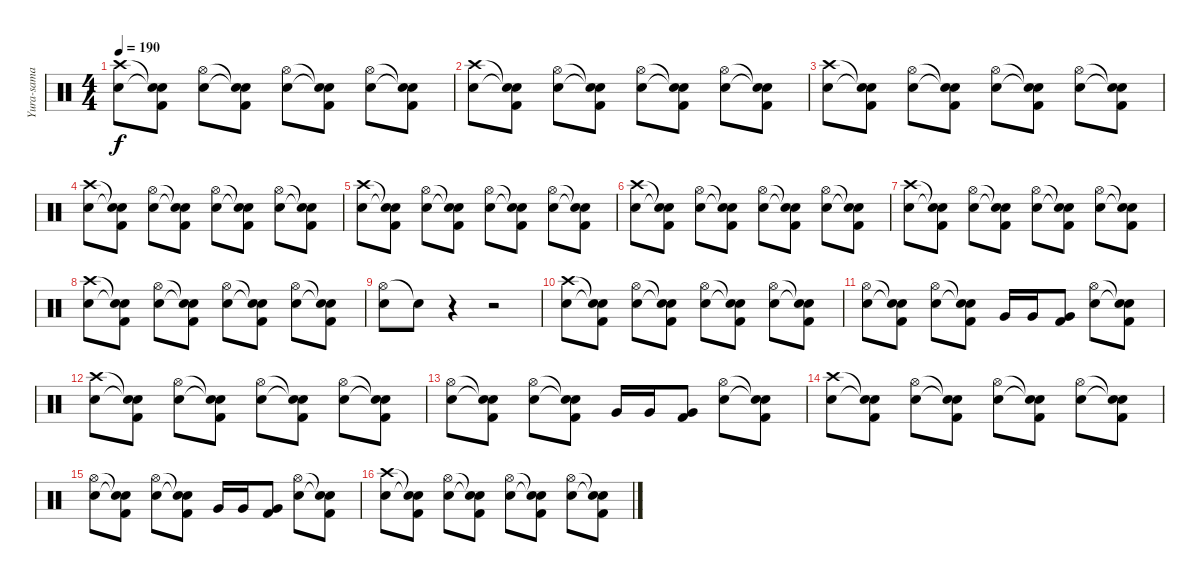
\track ("Yura-sama" "Yura-sama") {instrument percussion}
\staff {score}
\articulation defaults
\ts (4 4)
\tempo 190
\clef neutral
\ks c
("Crash high (hit)" "Electric Snare (hit)").8{dy f} ("Snare (hit)"{t} "Snare (hit)"{t} "Kick (hit) 2").8 ("Hi-Hat (open)" "Electric Snare (hit)").8 ("Snare (hit)"{t} "Snare (hit)"{t} "Kick (hit) 2").8 ("Hi-Hat (open)" "Electric Snare (hit)").8 ("Snare (hit)"{t} "Snare (hit)"{t} "Kick (hit) 2").8 ("Hi-Hat (open)" "Electric Snare (hit)").8 ("Snare (hit)"{t} "Snare (hit)"{t} "Kick (hit) 2").8 |
("Crash high (hit)" "Electric Snare (hit)").8 ("Snare (hit)"{t} "Snare (hit)"{t} "Kick (hit) 2").8 ("Hi-Hat (open)" "Electric Snare (hit)").8 ("Snare (hit)"{t} "Snare (hit)"{t} "Kick (hit) 2").8 ("Hi-Hat (open)" "Electric Snare (hit)").8 ("Snare (hit)"{t} "Snare (hit)"{t} "Kick (hit) 2").8 ("Hi-Hat (open)" "Electric Snare (hit)").8 ("Snare (hit)"{t} "Snare (hit)"{t} "Kick (hit) 2").8 |
("Crash high (hit)" "Electric Snare (hit)").8 ("Snare (hit)"{t} "Snare (hit)"{t} "Kick (hit) 2").8 ("Hi-Hat (open)" "Electric Snare (hit)").8 ("Snare (hit)"{t} "Snare (hit)"{t} "Kick (hit) 2").8 ("Hi-Hat (open)" "Electric Snare (hit)").8 ("Snare (hit)"{t} "Snare (hit)"{t} "Kick (hit) 2").8 ("Hi-Hat (open)" "Electric Snare (hit)").8 ("Snare (hit)"{t} "Snare (hit)"{t} "Kick (hit) 2").8 |
("Crash high (hit)" "Electric Snare (hit)").8 ("Snare (hit)"{t} "Snare (hit)"{t} "Kick (hit) 2").8 ("Hi-Hat (open)" "Electric Snare (hit)").8 ("Snare (hit)"{t} "Snare (hit)"{t} "Kick (hit) 2").8 ("Hi-Hat (open)" "Electric Snare (hit)").8 ("Snare (hit)"{t} "Snare (hit)"{t} "Kick (hit) 2").8 ("Hi-Hat (open)" "Electric Snare (hit)").8 ("Snare (hit)"{t} "Snare (hit)"{t} "Kick (hit) 2").8 |
("Crash high (hit)" "Electric Snare (hit)").8 ("Snare (hit)"{t} "Snare (hit)"{t} "Kick (hit) 2").8 ("Hi-Hat (open)" "Electric Snare (hit)").8 ("Snare (hit)"{t} "Snare (hit)"{t} "Kick (hit) 2").8 ("Hi-Hat (open)" "Electric Snare (hit)").8 ("Snare (hit)"{t} "Snare (hit)"{t} "Kick (hit) 2").8 ("Hi-Hat (open)" "Electric Snare (hit)").8 ("Snare (hit)"{t} "Snare (hit)"{t} "Kick (hit) 2").8 |
("Crash high (hit)" "Electric Snare (hit)").8 ("Snare (hit)"{t} "Snare (hit)"{t} "Kick (hit) 2").8 ("Hi-Hat (open)" "Electric Snare (hit)").8 ("Snare (hit)"{t} "Snare (hit)"{t} "Kick (hit) 2").8 ("Hi-Hat (open)" "Electric Snare (hit)").8 ("Snare (hit)"{t} "Snare (hit)"{t} "Kick (hit) 2").8 ("Hi-Hat (open)" "Electric Snare (hit)").8 ("Snare (hit)"{t} "Snare (hit)"{t} "Kick (hit) 2").8 |
("Crash high (hit)" "Electric Snare (hit)").8 ("Snare (hit)"{t} "Snare (hit)"{t} "Kick (hit) 2").8 ("Hi-Hat (open)" "Electric Snare (hit)").8 ("Snare (hit)"{t} "Snare (hit)"{t} "Kick (hit) 2").8 ("Hi-Hat (open)" "Electric Snare (hit)").8 ("Snare (hit)"{t} "Snare (hit)"{t} "Kick (hit) 2").8 ("Hi-Hat (open)" "Electric Snare (hit)").8 ("Snare (hit)"{t} "Snare (hit)"{t} "Kick (hit) 2").8 |
("Crash high (hit)" "Electric Snare (hit)").8 ("Snare (hit)"{t} "Snare (hit)"{t} "Kick (hit) 2").8 ("Hi-Hat (open)" "Electric Snare (hit)").8 ("Snare (hit)"{t} "Snare (hit)"{t} "Kick (hit) 2").8 ("Hi-Hat (open)" "Electric Snare (hit)").8 ("Snare (hit)"{t} "Snare (hit)"{t} "Kick (hit) 2").8 ("Hi-Hat (open)" "Electric Snare (hit)").8 ("Snare (hit)"{t} "Snare (hit)"{t} "Kick (hit) 2").8 |
("Hi-Hat (open)" "Electric Snare (hit)").8 "Snare (hit)"{t}.8 r.4 r.2 |
("Crash high (hit)" "Electric Snare (hit)").8 ("Snare (hit)"{t} "Snare (hit)"{t} "Kick (hit) 2").8 ("Hi-Hat (open)" "Electric Snare (hit)").8 ("Snare (hit)"{t} "Snare (hit)"{t} "Kick (hit) 2").8 ("Hi-Hat (open)" "Electric Snare (hit)").8 ("Snare (hit)"{t} "Snare (hit)"{t} "Kick (hit) 2").8 ("Hi-Hat (open)" "Electric Snare (hit)").8 ("Snare (hit)"{t} "Snare (hit)"{t} "Kick (hit) 2").8 |
("Hi-Hat (open)" "Electric Snare (hit)").8 ("Snare (hit)"{t} "Snare (hit)"{t} "Kick (hit) 2").8 ("Hi-Hat (open)" "Electric Snare (hit)").8 ("Snare (hit)"{t} "Snare (hit)"{t} "Kick (hit) 2").8 "Very Low Tom (hit)".16 "Very Low Tom (hit)".16 ("Very Low Tom (hit)" "Kick (hit) 2").8 ("Hi-Hat (open)" "Electric Snare (hit)").8 ("Snare (hit)"{t} "Snare (hit)"{t} "Kick (hit) 2").8 |
("Crash high (hit)" "Electric Snare (hit)").8 ("Snare (hit)"{t} "Snare (hit)"{t} "Kick (hit) 2").8 ("Hi-Hat (open)" "Electric Snare (hit)").8 ("Snare (hit)"{t} "Snare (hit)"{t} "Kick (hit) 2").8 ("Hi-Hat (open)" "Electric Snare (hit)").8 ("Snare (hit)"{t} "Snare (hit)"{t} "Kick (hit) 2").8 ("Hi-Hat (open)" "Electric Snare (hit)").8 ("Snare (hit)"{t} "Snare (hit)"{t} "Kick (hit) 2").8 |
("Hi-Hat (open)" "Electric Snare (hit)").8 ("Snare (hit)"{t} "Snare (hit)"{t} "Kick (hit) 2").8 ("Hi-Hat (open)" "Electric Snare (hit)").8 ("Snare (hit)"{t} "Snare (hit)"{t} "Kick (hit) 2").8 "Very Low Tom (hit)".16 "Very Low Tom (hit)".16 ("Very Low Tom (hit)" "Kick (hit) 2").8 ("Hi-Hat (open)" "Electric Snare (hit)").8 ("Snare (hit)"{t} "Snare (hit)"{t} "Kick (hit) 2").8 |
("Crash high (hit)" "Electric Snare (hit)").8 ("Snare (hit)"{t} "Snare (hit)"{t} "Kick (hit) 2").8 ("Hi-Hat (open)" "Electric Snare (hit)").8 ("Snare (hit)"{t} "Snare (hit)"{t} "Kick (hit) 2").8 ("Hi-Hat (open)" "Electric Snare (hit)").8 ("Snare (hit)"{t} "Snare (hit)"{t} "Kick (hit) 2").8 ("Hi-Hat (open)" "Electric Snare (hit)").8 ("Snare (hit)"{t} "Snare (hit)"{t} "Kick (hit) 2").8 |
("Hi-Hat (open)" "Electric Snare (hit)").8 ("Snare (hit)"{t} "Snare (hit)"{t} "Kick (hit) 2").8 ("Hi-Hat (open)" "Electric Snare (hit)").8 ("Snare (hit)"{t} "Snare (hit)"{t} "Kick (hit) 2").8 "Very Low Tom (hit)".16 "Very Low Tom (hit)".16 ("Very Low Tom (hit)" "Kick (hit) 2").8 ("Hi-Hat (open)" "Electric Snare (hit)").8 ("Snare (hit)"{t} "Snare (hit)"{t} "Kick (hit) 2").8 |
("Crash high (hit)" "Electric Snare (hit)").8 ("Snare (hit)"{t} "Snare (hit)"{t} "Kick (hit) 2").8 ("Hi-Hat (open)" "Electric Snare (hit)").8 ("Snare (hit)"{t} "Snare (hit)"{t} "Kick (hit) 2").8 ("Hi-Hat (open)" "Electric Snare (hit)").8 ("Snare (hit)"{t} "Snare (hit)"{t} "Kick (hit) 2").8 ("Hi-Hat (open)" "Electric Snare (hit)").8 ("Snare (hit)"{t} "Snare (hit)"{t} "Kick (hit) 2").8
